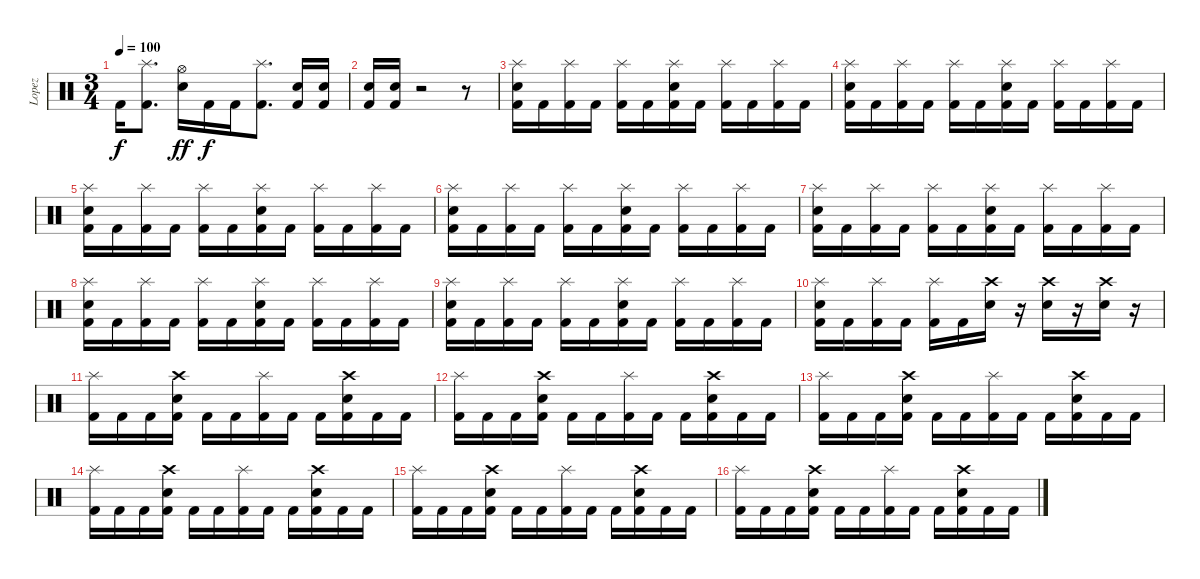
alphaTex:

\track ("Lopez" "Lopez") {instrument percussion}
\staff {score}
\articulation defaults
\ts (3 4)
\tempo 100
\clef neutral
\ks c "Kick (hit) 2".16{dy f}
("Splash (hit)" "Kick (hit) 2").8{d} ("Hi-Hat (open)" "Snare (hit) 2").16{dy ff} "Kick (hit) 2".16{dy f} "Kick (hit) 2".16 ("Splash (hit)" "Kick (hit) 2").8{d} ("Snare (hit) 2" "Kick (hit) 2").16 ("Snare (hit) 2" "Kick (hit) 2").16 |
("Snare (hit) 2" "Kick (hit) 2").16 ("Snare (hit) 2" "Kick (hit) 2").16 r.2 r.8 |
("Splash (hit)" "Snare (hit) 2" "Kick (hit) 2").16 "Kick (hit) 2".16 ("Splash (hit)" "Kick (hit) 2").16 "Kick (hit) 2".16 ("Splash (hit)" "Kick (hit) 2").16 "Kick (hit) 2".16 ("Splash (hit)" "Snare (hit) 2" "Kick (hit) 2").16 "Kick (hit) 2".16 ("Splash (hit)" "Kick (hit) 2").16 "Kick (hit) 2".16 ("Splash (hit)" "Kick (hit) 2").16 "Kick (hit) 2".16 |
("Splash (hit)" "Snare (hit) 2" "Kick (hit) 2").16 "Kick (hit) 2".16 ("Splash (hit)" "Kick (hit) 2").16 "Kick (hit) 2".16 ("Splash (hit)" "Kick (hit) 2").16 "Kick (hit) 2".16 ("Splash (hit)" "Snare (hit) 2" "Kick (hit) 2").16 "Kick (hit) 2".16 ("Splash (hit)" "Kick (hit) 2").16 "Kick (hit) 2".16 ("Splash (hit)" "Kick (hit) 2").16 "Kick (hit) 2".16 |
("Splash (hit)" "Snare (hit) 2" "Kick (hit) 2").16 "Kick (hit) 2".16 ("Splash (hit)" "Kick (hit) 2").16 "Kick (hit) 2".16 ("Splash (hit)" "Kick (hit) 2").16 "Kick (hit) 2".16 ("Splash (hit)" "Snare (hit) 2" "Kick (hit) 2").16 "Kick (hit) 2".16 ("Splash (hit)" "Kick (hit) 2").16 "Kick (hit) 2".16 ("Splash (hit)" "Kick (hit) 2").16 "Kick (hit) 2".16 |
("Splash (hit)" "Snare (hit) 2" "Kick (hit) 2").16 "Kick (hit) 2".16 ("Splash (hit)" "Kick (hit) 2").16 "Kick (hit) 2".16 ("Splash (hit)" "Kick (hit) 2").16 "Kick (hit) 2".16 ("Splash (hit)" "Snare (hit) 2" "Kick (hit) 2").16 "Kick (hit) 2".16 ("Splash (hit)" "Kick (hit) 2").16 "Kick (hit) 2".16 ("Splash (hit)" "Kick (hit) 2").16 "Kick (hit) 2".16 |
("Splash (hit)" "Snare (hit) 2" "Kick (hit) 2").16 "Kick (hit) 2".16 ("Splash (hit)" "Kick (hit) 2").16 "Kick (hit) 2".16 ("Splash (hit)" "Kick (hit) 2").16 "Kick (hit) 2".16 ("Splash (hit)" "Snare (hit) 2" "Kick (hit) 2").16 "Kick (hit) 2".16 ("Splash (hit)" "Kick (hit) 2").16 "Kick (hit) 2".16 ("Splash (hit)" "Kick (hit) 2").16 "Kick (hit) 2".16 |
("Splash (hit)" "Snare (hit) 2" "Kick (hit) 2").16 "Kick (hit) 2".16 ("Splash (hit)" "Kick (hit) 2").16 "Kick (hit) 2".16 ("Splash (hit)" "Kick (hit) 2").16 "Kick (hit) 2".16 ("Splash (hit)" "Snare (hit) 2" "Kick (hit) 2").16 "Kick (hit) 2".16 ("Splash (hit)" "Kick (hit) 2").16 "Kick (hit) 2".16 ("Splash (hit)" "Kick (hit) 2").16 "Kick (hit) 2".16 |
("Splash (hit)" "Snare (hit) 2" "Kick (hit) 2").16 "Kick (hit) 2".16 ("Splash (hit)" "Kick (hit) 2").16 "Kick (hit) 2".16 ("Splash (hit)" "Kick (hit) 2").16 "Kick (hit) 2".16 ("Splash (hit)" "Snare (hit) 2" "Kick (hit) 2").16 "Kick (hit) 2".16 ("Splash (hit)" "Kick (hit) 2").16 "Kick (hit) 2".16 ("Splash (hit)" "Kick (hit) 2").16 "Kick (hit) 2".16 |
("Splash (hit)" "Snare (hit) 2" "Kick (hit) 2").16 "Kick (hit) 2".16 ("Splash (hit)" "Kick (hit) 2").16 "Kick (hit) 2".16 ("Splash (hit)" "Kick (hit) 2").16 "Kick (hit) 2".16 ("Crash high (hit)" "Snare (hit) 2").16 r.16 ("Crash high (hit)" "Snare (hit) 2").16 r.16 ("Crash high (hit)" "Snare (hit) 2").16 r.16 |
("Splash (hit)" "Kick (hit) 2").16 "Kick (hit) 2".16 "Kick (hit) 2".16 ("Crash high (hit)" "Snare (hit) 2" "Kick (hit) 2").16 "Kick (hit) 2".16 "Kick (hit) 2".16 ("Splash (hit)" "Kick (hit) 2").16 "Kick (hit) 2".16 "Kick (hit) 2".16 ("Crash high (hit)" "Snare (hit) 2" "Kick (hit) 2").16 "Kick (hit) 2".16 "Kick (hit) 2".16 |
("Splash (hit)" "Kick (hit) 2").16 "Kick (hit) 2".16 "Kick (hit) 2".16 ("Crash high (hit)" "Snare (hit) 2" "Kick (hit) 2").16 "Kick (hit) 2".16 "Kick (hit) 2".16 ("Splash (hit)" "Kick (hit) 2").16 "Kick (hit) 2".16 "Kick (hit) 2".16 ("Crash high (hit)" "Snare (hit) 2" "Kick (hit) 2").16 "Kick (hit) 2".16 "Kick (hit) 2".16 |
("Splash (hit)" "Kick (hit) 2").16 "Kick (hit) 2".16 "Kick (hit) 2".16 ("Crash high (hit)" "Snare (hit) 2" "Kick (hit) 2").16 "Kick (hit) 2".16 "Kick (hit) 2".16 ("Splash (hit)" "Kick (hit) 2").16 "Kick (hit) 2".16 "Kick (hit) 2".16 ("Crash high (hit)" "Snare (hit) 2" "Kick (hit) 2").16 "Kick (hit) 2".16 "Kick (hit) 2".16 |
("Splash (hit)" "Kick (hit) 2").16 "Kick (hit) 2".16 "Kick (hit) 2".16 ("Crash high (hit)" "Snare (hit) 2" "Kick (hit) 2").16 "Kick (hit) 2".16 "Kick (hit) 2".16 ("Splash (hit)" "Kick (hit) 2").16 "Kick (hit) 2".16 "Kick (hit) 2".16 ("Crash high (hit)" "Snare (hit) 2" "Kick (hit) 2").16 "Kick (hit) 2".16 "Kick (hit) 2".16 |
("Splash (hit)" "Kick (hit) 2").16 "Kick (hit) 2".16 "Kick (hit) 2".16 ("Crash high (hit)" "Snare (hit) 2" "Kick (hit) 2").16 "Kick (hit) 2".16 "Kick (hit) 2".16 ("Splash (hit)" "Kick (hit) 2").16 "Kick (hit) 2".16 "Kick (hit) 2".16 ("Crash high (hit)" "Snare (hit) 2" "Kick (hit) 2").16 "Kick (hit) 2".16 "Kick (hit) 2".16 |
("Splash (hit)" "Kick (hit) 2").16 "Kick (hit) 2".16 "Kick (hit) 2".16 ("Crash high (hit)" "Snare (hit) 2" "Kick (hit) 2").16 "Kick (hit) 2".16 "Kick (hit) 2".16 ("Splash (hit)" "Kick (hit) 2").16 "Kick (hit) 2".16 "Kick (hit) 2".16 ("Crash high (hit)" "Snare (hit) 2" "Kick (hit) 2").16 "Kick (hit) 2".16 "Kick (hit) 2".16
